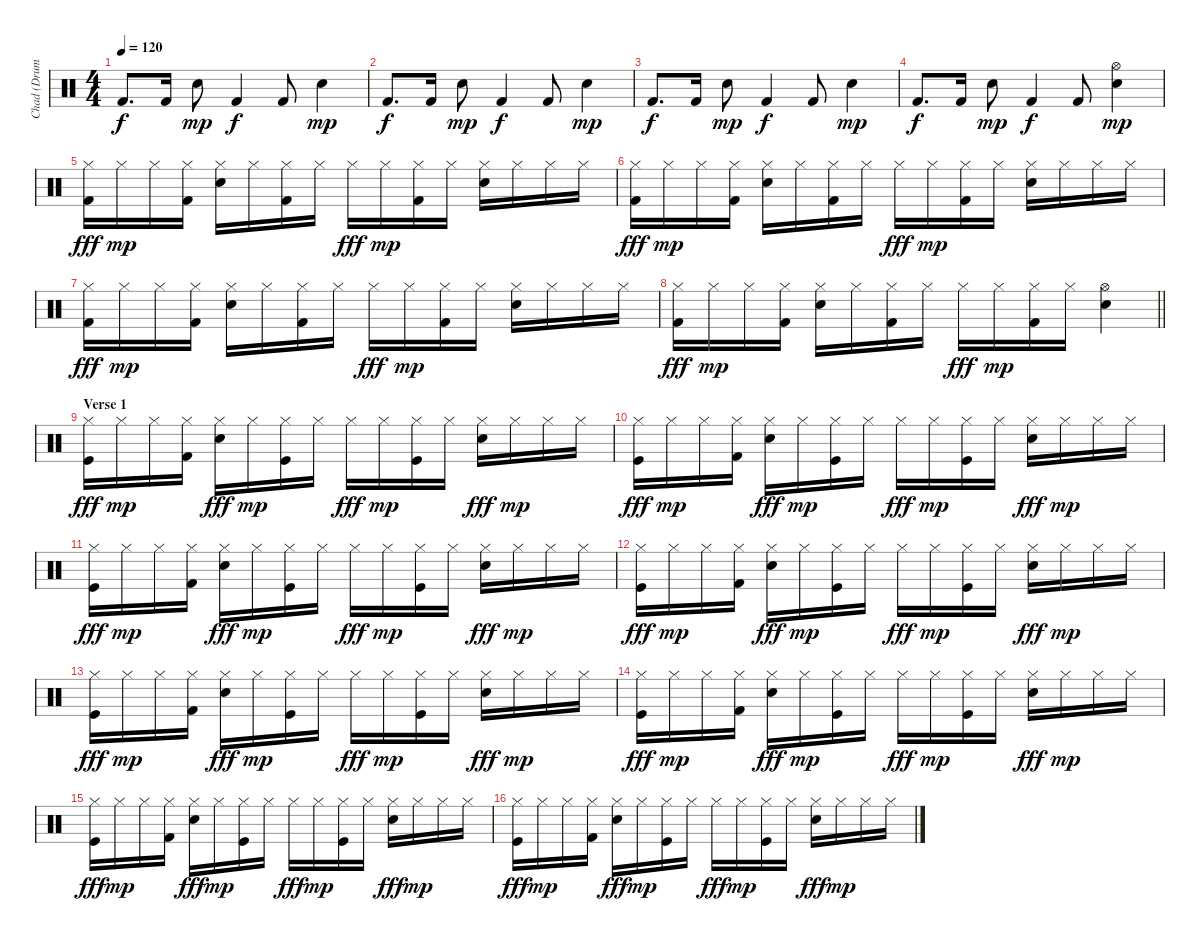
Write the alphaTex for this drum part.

\track ("Chad (Drums)" "Chad (Drum") {instrument percussion}
\staff {score}
\articulation defaults
\ts (4 4)
\tempo 120
\clef neutral
\ks c "Kick (hit) 2".8{d dy f} "Kick (hit) 2".16 "Electric Snare (hit)".8{dy mp} "Kick (hit) 2".4{dy f} "Kick (hit) 2".8 "Electric Snare (hit)".4{dy mp}
|
"Kick (hit) 2".8{d dy f} "Kick (hit) 2".16 "Electric Snare (hit)".8{dy mp} "Kick (hit) 2".4{dy f} "Kick (hit) 2".8 "Electric Snare (hit)".4{dy mp} |
"Kick (hit) 2".8{d dy f} "Kick (hit) 2".16 "Electric Snare (hit)".8{dy mp} "Kick (hit) 2".4{dy f} "Kick (hit) 2".8 "Electric Snare (hit)".4{dy mp} |
"Kick (hit) 2".8{d dy f} "Kick (hit) 2".16 "Electric Snare (hit)".8{dy mp} "Kick (hit) 2".4{dy f} "Kick (hit) 2".8 ("Hi-Hat (open)" "Electric Snare (hit)").4{dy mp} |
("Hi-Hat (closed)" "Kick (hit) 2").16{dy fff} "Hi-Hat (closed)".16{dy mp} "Hi-Hat (closed)".16 ("Hi-Hat (closed)" "Kick (hit) 2").16 ("Hi-Hat (closed)" "Electric Snare (hit)").16 "Hi-Hat (closed)".16 ("Hi-Hat (closed)" "Kick (hit) 2").16 "Hi-Hat (closed)".16 "Hi-Hat (closed)".16{dy fff} "Hi-Hat (closed)".16{dy mp} ("Hi-Hat (closed)" "Kick (hit) 2").16 "Hi-Hat (closed)".16 ("Hi-Hat (closed)" "Electric Snare (hit)").16 "Hi-Hat (closed)".16 "Hi-Hat (closed)".16 "Hi-Hat (closed)".16 |
("Hi-Hat (closed)" "Kick (hit) 2").16{dy fff} "Hi-Hat (closed)".16{dy mp} "Hi-Hat (closed)".16 ("Hi-Hat (closed)" "Kick (hit) 2").16 ("Hi-Hat (closed)" "Electric Snare (hit)").16 "Hi-Hat (closed)".16 ("Hi-Hat (closed)" "Kick (hit) 2").16 "Hi-Hat (closed)".16 "Hi-Hat (closed)".16{dy fff} "Hi-Hat (closed)".16{dy mp} ("Hi-Hat (closed)" "Kick (hit) 2").16 "Hi-Hat (closed)".16 ("Hi-Hat (closed)" "Electric Snare (hit)").16 "Hi-Hat (closed)".16 "Hi-Hat (closed)".16 "Hi-Hat (closed)".16 |
("Hi-Hat (closed)" "Kick (hit) 2").16{dy fff} "Hi-Hat (closed)".16{dy mp} "Hi-Hat (closed)".16 ("Hi-Hat (closed)" "Kick (hit) 2").16 ("Hi-Hat (closed)" "Electric Snare (hit)").16 "Hi-Hat (closed)".16 ("Hi-Hat (closed)" "Kick (hit) 2").16 "Hi-Hat (closed)".16 "Hi-Hat (closed)".16{dy fff} "Hi-Hat (closed)".16{dy mp} ("Hi-Hat (closed)" "Kick (hit) 2").16 "Hi-Hat (closed)".16 ("Hi-Hat (closed)" "Electric Snare (hit)").16 "Hi-Hat (closed)".16 "Hi-Hat (closed)".16 "Hi-Hat (closed)".16 |
\barLineRight lightlight
("Hi-Hat (closed)" "Kick (hit) 2").16{dy fff} "Hi-Hat (closed)".16{dy mp} "Hi-Hat (closed)".16 ("Hi-Hat (closed)" "Kick (hit) 2").16 ("Hi-Hat (closed)" "Electric Snare (hit)").16 "Hi-Hat (closed)".16 ("Hi-Hat (closed)" "Kick (hit) 2").16 "Hi-Hat (closed)".16 "Hi-Hat (closed)".16{dy fff} "Hi-Hat (closed)".16{dy mp} ("Hi-Hat (closed)" "Kick (hit) 2").16 "Hi-Hat (closed)".16 ("Hi-Hat (open)" "Electric Snare (hit)").4 |
\section ("" "Verse 1")
("Hi-Hat (closed)" "Kick (hit)").16{dy fff} "Hi-Hat (closed)".16{dy mp} "Hi-Hat (closed)".16 ("Hi-Hat (closed)" "Kick (hit) 2").16 ("Hi-Hat (closed)" "Snare (hit) 2").16{dy fff} "Hi-Hat (closed)".16{dy mp} ("Hi-Hat (closed)" "Kick (hit)").16 "Hi-Hat (closed)".16 "Hi-Hat (closed)".16{dy fff} "Hi-Hat (closed)".16{dy mp} ("Hi-Hat (closed)" "Kick (hit)").16 "Hi-Hat (closed)".16 ("Hi-Hat (closed)" "Snare (hit) 2").16{dy fff} "Hi-Hat (closed)".16{dy mp} "Hi-Hat (closed)".16 "Hi-Hat (closed)".16 |
("Hi-Hat (closed)" "Kick (hit)").16{dy fff} "Hi-Hat (closed)".16{dy mp} "Hi-Hat (closed)".16 ("Hi-Hat (closed)" "Kick (hit) 2").16 ("Hi-Hat (closed)" "Snare (hit) 2").16{dy fff} "Hi-Hat (closed)".16{dy mp} ("Hi-Hat (closed)" "Kick (hit)").16 "Hi-Hat (closed)".16 "Hi-Hat (closed)".16{dy fff} "Hi-Hat (closed)".16{dy mp} ("Hi-Hat (closed)" "Kick (hit)").16 "Hi-Hat (closed)".16 ("Hi-Hat (closed)" "Snare (hit) 2").16{dy fff} "Hi-Hat (closed)".16{dy mp} "Hi-Hat (closed)".16 "Hi-Hat (closed)".16 |
("Hi-Hat (closed)" "Kick (hit)").16{dy fff} "Hi-Hat (closed)".16{dy mp} "Hi-Hat (closed)".16 ("Hi-Hat (closed)" "Kick (hit) 2").16 ("Hi-Hat (closed)" "Snare (hit) 2").16{dy fff} "Hi-Hat (closed)".16{dy mp} ("Hi-Hat (closed)" "Kick (hit)").16 "Hi-Hat (closed)".16 "Hi-Hat (closed)".16{dy fff} "Hi-Hat (closed)".16{dy mp} ("Hi-Hat (closed)" "Kick (hit)").16 "Hi-Hat (closed)".16 ("Hi-Hat (closed)" "Snare (hit) 2").16{dy fff} "Hi-Hat (closed)".16{dy mp} "Hi-Hat (closed)".16 "Hi-Hat (closed)".16 |
("Hi-Hat (closed)" "Kick (hit)").16{dy fff} "Hi-Hat (closed)".16{dy mp} "Hi-Hat (closed)".16 ("Hi-Hat (closed)" "Kick (hit) 2").16 ("Hi-Hat (closed)" "Snare (hit) 2").16{dy fff} "Hi-Hat (closed)".16{dy mp} ("Hi-Hat (closed)" "Kick (hit)").16 "Hi-Hat (closed)".16 "Hi-Hat (closed)".16{dy fff} "Hi-Hat (closed)".16{dy mp} ("Hi-Hat (closed)" "Kick (hit)").16 "Hi-Hat (closed)".16 ("Hi-Hat (closed)" "Snare (hit) 2").16{dy fff} "Hi-Hat (closed)".16{dy mp} "Hi-Hat (closed)".16 "Hi-Hat (closed)".16 |
("Hi-Hat (closed)" "Kick (hit)").16{dy fff} "Hi-Hat (closed)".16{dy mp} "Hi-Hat (closed)".16 ("Hi-Hat (closed)" "Kick (hit) 2").16 ("Hi-Hat (closed)" "Snare (hit) 2").16{dy fff} "Hi-Hat (closed)".16{dy mp} ("Hi-Hat (closed)" "Kick (hit)").16 "Hi-Hat (closed)".16 "Hi-Hat (closed)".16{dy fff} "Hi-Hat (closed)".16{dy mp} ("Hi-Hat (closed)" "Kick (hit)").16 "Hi-Hat (closed)".16 ("Hi-Hat (closed)" "Snare (hit) 2").16{dy fff} "Hi-Hat (closed)".16{dy mp} "Hi-Hat (closed)".16 "Hi-Hat (closed)".16 |
("Hi-Hat (closed)" "Kick (hit)").16{dy fff} "Hi-Hat (closed)".16{dy mp} "Hi-Hat (closed)".16 ("Hi-Hat (closed)" "Kick (hit) 2").16 ("Hi-Hat (closed)" "Snare (hit) 2").16{dy fff} "Hi-Hat (closed)".16{dy mp} ("Hi-Hat (closed)" "Kick (hit)").16 "Hi-Hat (closed)".16 "Hi-Hat (closed)".16{dy fff} "Hi-Hat (closed)".16{dy mp} ("Hi-Hat (closed)" "Kick (hit)").16 "Hi-Hat (closed)".16 ("Hi-Hat (closed)" "Snare (hit) 2").16{dy fff} "Hi-Hat (closed)".16{dy mp} "Hi-Hat (closed)".16 "Hi-Hat (closed)".16 |
("Hi-Hat (closed)" "Kick (hit)").16{dy fff} "Hi-Hat (closed)".16{dy mp} "Hi-Hat (closed)".16 ("Hi-Hat (closed)" "Kick (hit) 2").16 ("Hi-Hat (closed)" "Snare (hit) 2").16{dy fff} "Hi-Hat (closed)".16{dy mp} ("Hi-Hat (closed)" "Kick (hit)").16 "Hi-Hat (closed)".16 "Hi-Hat (closed)".16{dy fff} "Hi-Hat (closed)".16{dy mp} ("Hi-Hat (closed)" "Kick (hit)").16 "Hi-Hat (closed)".16 ("Hi-Hat (closed)" "Snare (hit) 2").16{dy fff} "Hi-Hat (closed)".16{dy mp} "Hi-Hat (closed)".16 "Hi-Hat (closed)".16 |
("Hi-Hat (closed)" "Kick (hit)").16{dy fff} "Hi-Hat (closed)".16{dy mp} "Hi-Hat (closed)".16 ("Hi-Hat (closed)" "Kick (hit) 2").16 ("Hi-Hat (closed)" "Snare (hit) 2").16{dy fff} "Hi-Hat (closed)".16{dy mp} ("Hi-Hat (closed)" "Kick (hit)").16 "Hi-Hat (closed)".16 "Hi-Hat (closed)".16{dy fff} "Hi-Hat (closed)".16{dy mp} ("Hi-Hat (closed)" "Kick (hit)").16 "Hi-Hat (closed)".16 ("Hi-Hat (closed)" "Snare (hit) 2").16{dy fff} "Hi-Hat (closed)".16{dy mp} "Hi-Hat (closed)".16 "Hi-Hat (closed)".16
